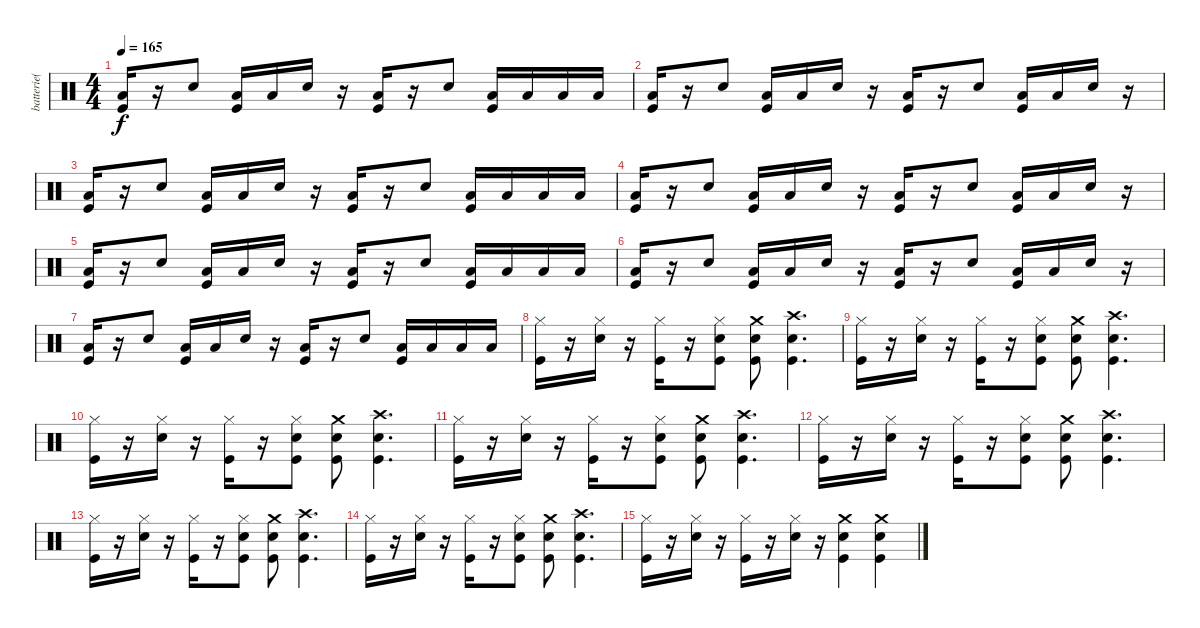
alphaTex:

\track ("batterie( Shawn )" "batterie( ") {instrument percussion}
\staff {score}
\articulation defaults
\ts (4 4)
\tempo 165
\clef neutral
\ks c
("Low Floor Tom (hit)" "Kick (hit)").16{dy f} r.16 "Snare (hit) 2".8 ("Low Floor Tom (hit)" "Kick (hit)").16 "Low Floor Tom (hit)".16 "Snare (hit) 2".16 r.16 ("Low Floor Tom (hit)" "Kick (hit)").16 r.16 "Snare (hit) 2".8 ("Low Floor Tom (hit)" "Kick (hit)").16 "Low Floor Tom (hit)".16 "Low Floor Tom (hit)".16 "Low Floor Tom (hit)".16 |
("Low Floor Tom (hit)" "Kick (hit)").16 r.16 "Snare (hit) 2".8 ("Low Floor Tom (hit)" "Kick (hit)").16 "Low Floor Tom (hit)".16 "Snare (hit) 2".16 r.16 ("Low Floor Tom (hit)" "Kick (hit)").16 r.16 "Snare (hit) 2".8 ("Low Floor Tom (hit)" "Kick (hit)").16 "Low Floor Tom (hit)".16 "Snare (hit) 2".16 r.16 |
("Low Floor Tom (hit)" "Kick (hit)").16 r.16 "Snare (hit) 2".8 ("Low Floor Tom (hit)" "Kick (hit)").16 "Low Floor Tom (hit)".16 "Snare (hit) 2".16 r.16 ("Low Floor Tom (hit)" "Kick (hit)").16 r.16 "Snare (hit) 2".8 ("Low Floor Tom (hit)" "Kick (hit)").16 "Low Floor Tom (hit)".16 "Low Floor Tom (hit)".16 "Low Floor Tom (hit)".16 |
("Low Floor Tom (hit)" "Kick (hit)").16 r.16 "Snare (hit) 2".8 ("Low Floor Tom (hit)" "Kick (hit)").16 "Low Floor Tom (hit)".16 "Snare (hit) 2".16 r.16 ("Low Floor Tom (hit)" "Kick (hit)").16 r.16 "Snare (hit) 2".8 ("Low Floor Tom (hit)" "Kick (hit)").16 "Low Floor Tom (hit)".16 "Snare (hit) 2".16 r.16 |
("Low Floor Tom (hit)" "Kick (hit)").16 r.16 "Snare (hit) 2".8 ("Low Floor Tom (hit)" "Kick (hit)").16 "Low Floor Tom (hit)".16 "Snare (hit) 2".16 r.16 ("Low Floor Tom (hit)" "Kick (hit)").16 r.16 "Snare (hit) 2".8 ("Low Floor Tom (hit)" "Kick (hit)").16 "Low Floor Tom (hit)".16 "Low Floor Tom (hit)".16 "Low Floor Tom (hit)".16 |
("Low Floor Tom (hit)" "Kick (hit)").16 r.16 "Snare (hit) 2".8 ("Low Floor Tom (hit)" "Kick (hit)").16 "Low Floor Tom (hit)".16 "Snare (hit) 2".16 r.16 ("Low Floor Tom (hit)" "Kick (hit)").16 r.16 "Snare (hit) 2".8 ("Low Floor Tom (hit)" "Kick (hit)").16 "Low Floor Tom (hit)".16 "Snare (hit) 2".16 r.16 |
("Low Floor Tom (hit)" "Kick (hit)").16 r.16 "Snare (hit) 2".8 ("Low Floor Tom (hit)" "Kick (hit)").16 "Low Floor Tom (hit)".16 "Snare (hit) 2".16 r.16 ("Low Floor Tom (hit)" "Kick (hit)").16 r.16 "Snare (hit) 2".8 ("Low Floor Tom (hit)" "Kick (hit)").16 "Low Floor Tom (hit)".16 "Low Floor Tom (hit)".16 "Low Floor Tom (hit)".16 |
("Hi-Hat (closed)" "Kick (hit)").16 r.16 ("Hi-Hat (closed)" "Snare (hit) 2").16 r.16 ("Hi-Hat (closed)" "Kick (hit)").16 r.16 ("Hi-Hat (closed)" "Snare (hit) 2" "Kick (hit)").8 ("Crash medium (hit)" "Snare (hit) 2" "Kick (hit)").8 ("Crash high (hit)" "Snare (hit) 2" "Kick (hit)").4{d} |
("Hi-Hat (closed)" "Kick (hit)").16 r.16 ("Hi-Hat (closed)" "Snare (hit) 2").16 r.16 ("Hi-Hat (closed)" "Kick (hit)").16 r.16 ("Hi-Hat (closed)" "Snare (hit) 2" "Kick (hit)").8 ("Crash medium (hit)" "Snare (hit) 2" "Kick (hit)").8 ("Crash high (hit)" "Snare (hit) 2" "Kick (hit)").4{d} |
("Hi-Hat (closed)" "Kick (hit)").16 r.16 ("Hi-Hat (closed)" "Snare (hit) 2").16 r.16 ("Hi-Hat (closed)" "Kick (hit)").16 r.16 ("Hi-Hat (closed)" "Snare (hit) 2" "Kick (hit)").8 ("Crash medium (hit)" "Snare (hit) 2" "Kick (hit)").8 ("Crash high (hit)" "Snare (hit) 2" "Kick (hit)").4{d} |
("Hi-Hat (closed)" "Kick (hit)").16 r.16 ("Hi-Hat (closed)" "Snare (hit) 2").16 r.16 ("Hi-Hat (closed)" "Kick (hit)").16 r.16 ("Hi-Hat (closed)" "Snare (hit) 2" "Kick (hit)").8 ("Crash medium (hit)" "Snare (hit) 2" "Kick (hit)").8 ("Crash high (hit)" "Snare (hit) 2" "Kick (hit)").4{d} |
("Hi-Hat (closed)" "Kick (hit)").16 r.16 ("Hi-Hat (closed)" "Snare (hit) 2").16 r.16 ("Hi-Hat (closed)" "Kick (hit)").16 r.16 ("Hi-Hat (closed)" "Snare (hit) 2" "Kick (hit)").8 ("Crash medium (hit)" "Snare (hit) 2" "Kick (hit)").8 ("Crash high (hit)" "Snare (hit) 2" "Kick (hit)").4{d} |
("Hi-Hat (closed)" "Kick (hit)").16 r.16 ("Hi-Hat (closed)" "Snare (hit) 2").16 r.16 ("Hi-Hat (closed)" "Kick (hit)").16 r.16 ("Hi-Hat (closed)" "Snare (hit) 2" "Kick (hit)").8 ("Crash medium (hit)" "Snare (hit) 2" "Kick (hit)").8 ("Crash high (hit)" "Snare (hit) 2" "Kick (hit)").4{d} |
("Hi-Hat (closed)" "Kick (hit)").16 r.16 ("Hi-Hat (closed)" "Snare (hit) 2").16 r.16 ("Hi-Hat (closed)" "Kick (hit)").16 r.16 ("Hi-Hat (closed)" "Snare (hit) 2" "Kick (hit)").8 ("Crash medium (hit)" "Snare (hit) 2" "Kick (hit)").8 ("Crash high (hit)" "Snare (hit) 2" "Kick (hit)").4{d} |
("Hi-Hat (closed)" "Kick (hit)").16 r.16 ("Hi-Hat (closed)" "Snare (hit) 2").16 r.16 ("Hi-Hat (closed)" "Kick (hit)").16 r.16 ("Hi-Hat (closed)" "Snare (hit) 2").16 r.16 ("Crash medium (hit)" "Snare (hit) 2" "Kick (hit)").4 ("Crash medium (hit)" "Snare (hit) 2" "Kick (hit)").4
